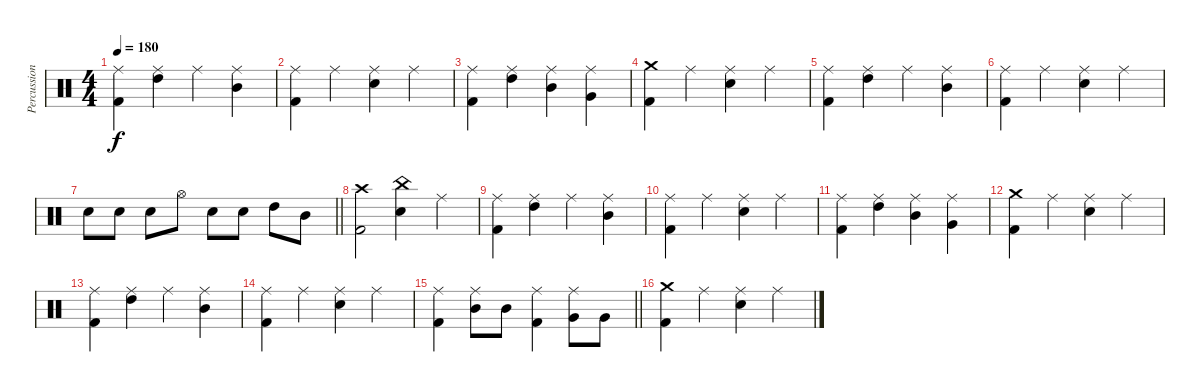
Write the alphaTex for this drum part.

\track ("Percussion" "Percussion") {instrument percussion}
\staff {score}
\articulation defaults
\ts (4 4)
\tempo 180
\clef neutral
\ks c
("Kick (hit) 2" "Ride (middle)").4{dy f} ("High Tom (hit)" "Ride (middle)").4 "Ride (middle)".4 ("Mid Tom (hit)" "Ride (middle)").4 |
("Kick (hit) 2" "Ride (middle)").4 "Ride (middle)".4 ("Snare (hit) 2" "Ride (middle)").4 "Ride (middle)".4 |
("Kick (hit) 2" "Ride (middle)").4 ("High Tom (hit)" "Ride (middle)").4 ("Mid Tom (hit)" "Ride (middle)").4 ("Ride (middle)" "Very Low Tom (hit)").4 |
("Kick (hit) 2" "Crash medium (hit)").4 "Ride (middle)".4 ("Snare (hit) 2" "Ride (middle)").4 "Ride (middle)".4 |
("Kick (hit) 2" "Ride (middle)").4 ("High Tom (hit)" "Ride (middle)").4 "Ride (middle)".4 ("Mid Tom (hit)" "Ride (middle)").4 |
("Kick (hit) 2" "Ride (middle)").4 "Ride (middle)".4 ("Snare (hit) 2" "Ride (middle)").4 "Ride (middle)".4 |
\barLineRight lightlight "Snare (hit) 2".8 "Snare (hit) 2".8 "Snare (hit) 2".8 "Hi-Hat (open)".8 "Snare (hit) 2".8 "Snare (hit) 2".8 "High Tom (hit)".8 "Mid Tom (hit)".8
|
("Kick (hit) 2" "Crash high (hit)").2 ("Snare (hit) 2" "China (hit)").4 "Ride (middle)".4 |
("Kick (hit) 2" "Ride (middle)").4 ("High Tom (hit)" "Ride (middle)").4 "Ride (middle)".4 ("Mid Tom (hit)" "Ride (middle)").4 |
("Kick (hit) 2" "Ride (middle)").4 "Ride (middle)".4 ("Snare (hit) 2" "Ride (middle)").4 "Ride (middle)".4 |
("Kick (hit) 2" "Ride (middle)").4 ("High Tom (hit)" "Ride (middle)").4 ("Mid Tom (hit)" "Ride (middle)").4 ("Ride (middle)" "Very Low Tom (hit)").4 |
("Kick (hit) 2" "Crash medium (hit)").4 "Ride (middle)".4 ("Snare (hit) 2" "Ride (middle)").4 "Ride (middle)".4 |
("Kick (hit) 2" "Ride (middle)").4 ("High Tom (hit)" "Ride (middle)").4 "Ride (middle)".4 ("Mid Tom (hit)" "Ride (middle)").4 |
("Kick (hit) 2" "Ride (middle)").4 "Ride (middle)".4 ("Snare (hit) 2" "Ride (middle)").4 "Ride (middle)".4 |
\barLineRight lightlight
("Kick (hit) 2" "Ride (middle)").4 ("Mid Tom (hit)" "Ride (middle)").8 "Mid Tom (hit)".8 ("Kick (hit) 2" "Ride (middle)").4 ("Very Low Tom (hit)" "Ride (middle)").8 "Very Low Tom (hit)".8 |
("Kick (hit) 2" "Crash medium (hit)").4 "Ride (middle)".4 ("Snare (hit) 2" "Ride (middle)").4 "Ride (middle)".4
